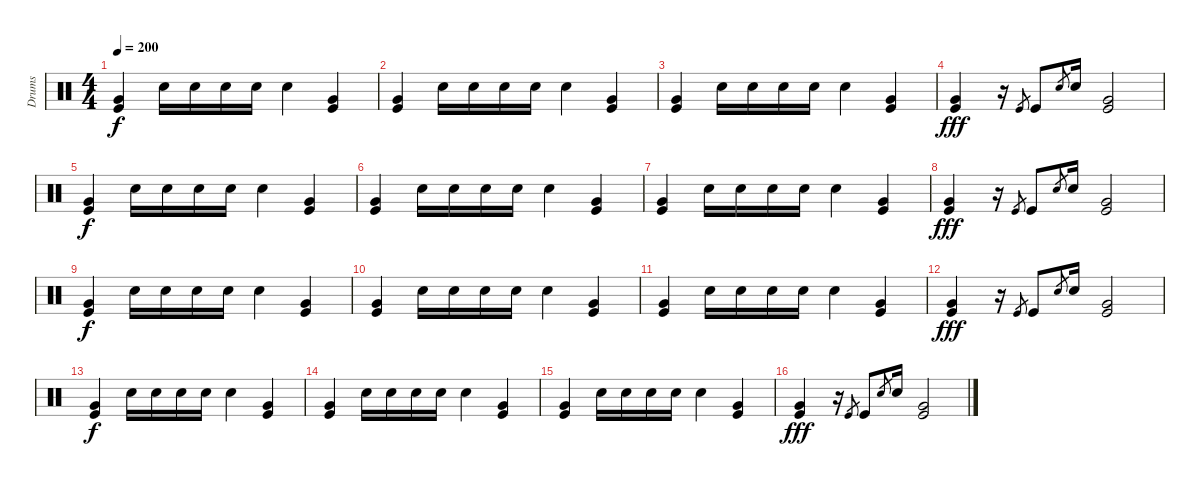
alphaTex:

\track ("Drums" "Drums") {instrument percussion}
\staff {score}
\articulation defaults
\ts (4 4)
\tempo 200
\clef neutral
\ks c
("Very Low Tom (hit)" "Kick (hit)").4{dy f} "Electric Snare (hit)".16 "Electric Snare (hit)".16 "Electric Snare (hit)".16 "Electric Snare (hit)".16 "Electric Snare (hit)".4 ("Very Low Tom (hit)" "Kick (hit)").4 |
("Very Low Tom (hit)" "Kick (hit)").4 "Electric Snare (hit)".16 "Electric Snare (hit)".16 "Electric Snare (hit)".16 "Electric Snare (hit)".16 "Electric Snare (hit)".4 ("Very Low Tom (hit)" "Kick (hit)").4 |
("Very Low Tom (hit)" "Kick (hit)").4 "Electric Snare (hit)".16 "Electric Snare (hit)".16 "Electric Snare (hit)".16 "Electric Snare (hit)".16 "Electric Snare (hit)".4 ("Very Low Tom (hit)" "Kick (hit)").4 |
("Very Low Tom (hit)" "Kick (hit)").4{dy fff} r.16 "Kick (hit)".8{gr} "Kick (hit)".8 "Electric Snare (hit)".8{gr} "Electric Snare (hit)".16 ("Very Low Tom (hit)" "Kick (hit)").2 |
("Very Low Tom (hit)" "Kick (hit)").4{dy f} "Electric Snare (hit)".16 "Electric Snare (hit)".16 "Electric Snare (hit)".16 "Electric Snare (hit)".16 "Electric Snare (hit)".4 ("Very Low Tom (hit)" "Kick (hit)").4 |
("Very Low Tom (hit)" "Kick (hit)").4 "Electric Snare (hit)".16 "Electric Snare (hit)".16 "Electric Snare (hit)".16 "Electric Snare (hit)".16 "Electric Snare (hit)".4 ("Very Low Tom (hit)" "Kick (hit)").4 |
("Very Low Tom (hit)" "Kick (hit)").4 "Electric Snare (hit)".16 "Electric Snare (hit)".16 "Electric Snare (hit)".16 "Electric Snare (hit)".16 "Electric Snare (hit)".4 ("Very Low Tom (hit)" "Kick (hit)").4 |
("Very Low Tom (hit)" "Kick (hit)").4{dy fff} r.16 "Kick (hit)".8{gr} "Kick (hit)".8 "Electric Snare (hit)".8{gr} "Electric Snare (hit)".16 ("Very Low Tom (hit)" "Kick (hit)").2 |
("Very Low Tom (hit)" "Kick (hit)").4{dy f} "Electric Snare (hit)".16 "Electric Snare (hit)".16 "Electric Snare (hit)".16 "Electric Snare (hit)".16 "Electric Snare (hit)".4 ("Very Low Tom (hit)" "Kick (hit)").4 |
("Very Low Tom (hit)" "Kick (hit)").4 "Electric Snare (hit)".16 "Electric Snare (hit)".16 "Electric Snare (hit)".16 "Electric Snare (hit)".16 "Electric Snare (hit)".4 ("Very Low Tom (hit)" "Kick (hit)").4 |
("Very Low Tom (hit)" "Kick (hit)").4 "Electric Snare (hit)".16 "Electric Snare (hit)".16 "Electric Snare (hit)".16 "Electric Snare (hit)".16 "Electric Snare (hit)".4 ("Very Low Tom (hit)" "Kick (hit)").4 |
("Very Low Tom (hit)" "Kick (hit)").4{dy fff} r.16 "Kick (hit)".8{gr} "Kick (hit)".8 "Electric Snare (hit)".8{gr} "Electric Snare (hit)".16 ("Very Low Tom (hit)" "Kick (hit)").2 |
("Very Low Tom (hit)" "Kick (hit)").4{dy f} "Electric Snare (hit)".16 "Electric Snare (hit)".16 "Electric Snare (hit)".16 "Electric Snare (hit)".16 "Electric Snare (hit)".4 ("Very Low Tom (hit)" "Kick (hit)").4 |
("Very Low Tom (hit)" "Kick (hit)").4 "Electric Snare (hit)".16 "Electric Snare (hit)".16 "Electric Snare (hit)".16 "Electric Snare (hit)".16 "Electric Snare (hit)".4 ("Very Low Tom (hit)" "Kick (hit)").4 |
("Very Low Tom (hit)" "Kick (hit)").4 "Electric Snare (hit)".16 "Electric Snare (hit)".16 "Electric Snare (hit)".16 "Electric Snare (hit)".16 "Electric Snare (hit)".4 ("Very Low Tom (hit)" "Kick (hit)").4 |
("Very Low Tom (hit)" "Kick (hit)").4{dy fff} r.16 "Kick (hit)".8{gr} "Kick (hit)".8 "Electric Snare (hit)".8{gr} "Electric Snare (hit)".16 ("Very Low Tom (hit)" "Kick (hit)").2
